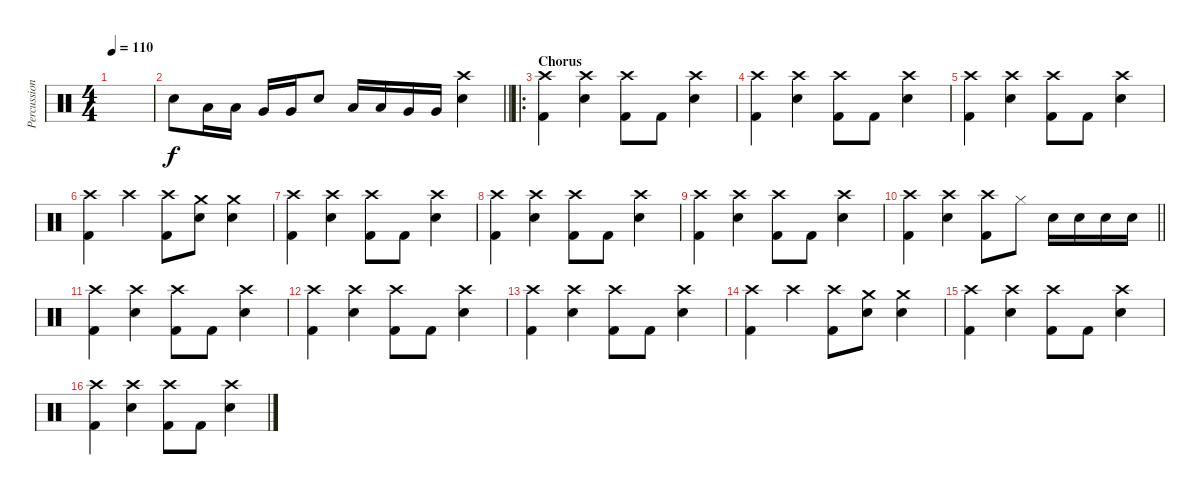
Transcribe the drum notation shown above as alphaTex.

\track ("Percussion" "Percussion") {instrument percussion}
\staff {score}
\articulation defaults
\ts (4 4)
\tempo 110
\clef neutral
\ks c
|
\barLineRight lightlight "Electric Snare (hit)".8 "Low Tom (hit)".16 "Low Tom (hit)".16 "Very Low Tom (hit)".16 "Very Low Tom (hit)".16 "Electric Snare (hit)".8 "Low Tom (hit)".16 "Low Tom (hit)".16 "Very Low Tom (hit)".16 "Very Low Tom (hit)".16
("Crash high (hit)" "Electric Snare (hit)").4 |
\ro
\section ("" "Chorus")
("Crash high (hit)" "Kick (hit) 2").4 ("Crash high (hit)" "Electric Snare (hit)").4 ("Crash high (hit)" "Kick (hit) 2").8 "Kick (hit) 2".8 ("Crash high (hit)" "Electric Snare (hit)").4 |
("Crash high (hit)" "Kick (hit) 2").4 ("Crash high (hit)" "Electric Snare (hit)").4 ("Crash high (hit)" "Kick (hit) 2").8 "Kick (hit) 2".8 ("Crash high (hit)" "Electric Snare (hit)").4 |
("Crash high (hit)" "Kick (hit) 2").4 ("Crash high (hit)" "Electric Snare (hit)").4 ("Crash high (hit)" "Kick (hit) 2").8 "Kick (hit) 2".8 ("Crash high (hit)" "Electric Snare (hit)").4 |
("Crash high (hit)" "Kick (hit) 2").4 "Crash high (hit)".4 ("Crash high (hit)" "Kick (hit) 2").8 ("Crash medium (hit)" "Electric Snare (hit)").8 ("Crash medium (hit)" "Electric Snare (hit)").4 |
("Crash high (hit)" "Kick (hit) 2").4 ("Crash high (hit)" "Electric Snare (hit)").4 ("Crash high (hit)" "Kick (hit) 2").8 "Kick (hit) 2".8 ("Crash high (hit)" "Electric Snare (hit)").4 |
("Crash high (hit)" "Kick (hit) 2").4 ("Crash high (hit)" "Electric Snare (hit)").4 ("Crash high (hit)" "Kick (hit) 2").8 "Kick (hit) 2".8 ("Crash high (hit)" "Electric Snare (hit)").4 |
("Crash high (hit)" "Kick (hit) 2").4 ("Crash high (hit)" "Electric Snare (hit)").4 ("Crash high (hit)" "Kick (hit) 2").8 "Kick (hit) 2".8 ("Crash high (hit)" "Electric Snare (hit)").4 |
\barLineRight lightlight
("Crash high (hit)" "Kick (hit) 2").4 ("Crash high (hit)" "Electric Snare (hit)").4 ("Crash high (hit)" "Kick (hit) 2").8 "Hi-Hat (closed)".8 "Electric Snare (hit)".16 "Electric Snare (hit)".16 "Electric Snare (hit)".16 "Electric Snare (hit)".16 |
("Crash high (hit)" "Kick (hit) 2").4 ("Crash high (hit)" "Electric Snare (hit)").4 ("Crash high (hit)" "Kick (hit) 2").8 "Kick (hit) 2".8 ("Crash high (hit)" "Electric Snare (hit)").4 |
("Crash high (hit)" "Kick (hit) 2").4 ("Crash high (hit)" "Electric Snare (hit)").4 ("Crash high (hit)" "Kick (hit) 2").8 "Kick (hit) 2".8 ("Crash high (hit)" "Electric Snare (hit)").4 |
("Crash high (hit)" "Kick (hit) 2").4 ("Crash high (hit)" "Electric Snare (hit)").4 ("Crash high (hit)" "Kick (hit) 2").8 "Kick (hit) 2".8 ("Crash high (hit)" "Electric Snare (hit)").4 |
("Crash high (hit)" "Kick (hit) 2").4 "Crash high (hit)".4 ("Crash high (hit)" "Kick (hit) 2").8 ("Crash medium (hit)" "Electric Snare (hit)").8 ("Crash medium (hit)" "Electric Snare (hit)").4 |
("Crash high (hit)" "Kick (hit) 2").4 ("Crash high (hit)" "Electric Snare (hit)").4 ("Crash high (hit)" "Kick (hit) 2").8 "Kick (hit) 2".8 ("Crash high (hit)" "Electric Snare (hit)").4 |
("Crash high (hit)" "Kick (hit) 2").4 ("Crash high (hit)" "Electric Snare (hit)").4 ("Crash high (hit)" "Kick (hit) 2").8 "Kick (hit) 2".8 ("Crash high (hit)" "Electric Snare (hit)").4
